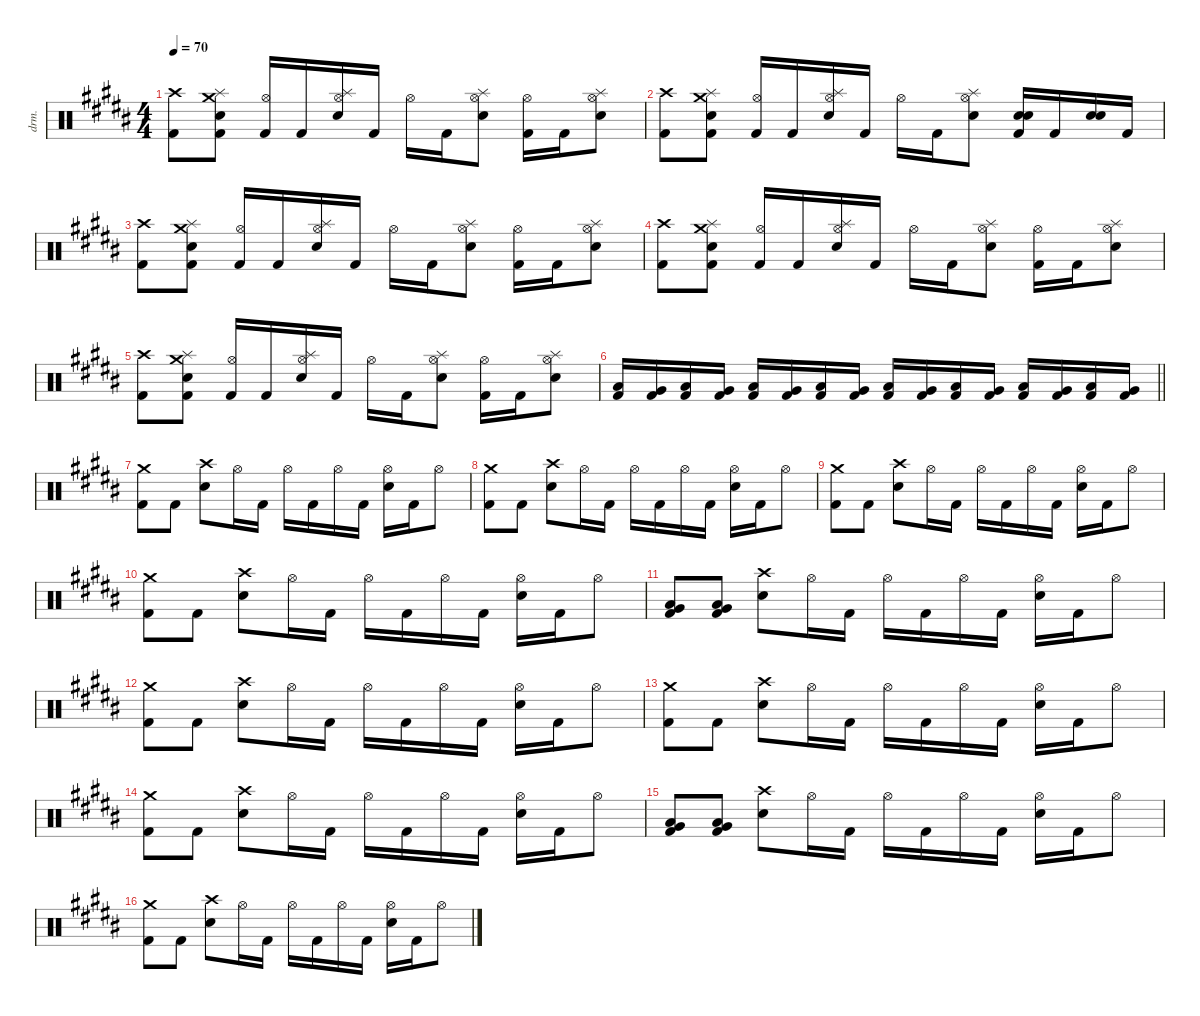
\defaultSystemsLayout 4
\hideDynamics
\bracketExtendMode nobrackets
\otherSystemsTrackNameOrientation horizontal
\track ("Drums" "drm.") {defaultSystemsLayout 4 instrument percussion}
\staff {score}
\articulation defaults
\ts (4 4)
\tempo 70
\clef neutral
\ks b
("Crash high (hit)"{acc forcenatural} "Kick (hit) 2"{acc forcenatural}).8{dy f beam Down} ("Crash medium (hit)"{acc forcenatural} "Splash (hit)"{acc forcenatural} "Snare (hit) 2"{acc forcenatural} "Kick (hit) 2"{acc forcenatural}).8{beam Down} ("Hi-Hat (open)"{acc forcenatural} "Kick (hit) 2"{acc forcenatural}).16{beam Up} "Kick (hit) 2"{acc forcenatural}.16{beam Up} ("Hi-Hat (open)"{acc forcenatural} "Splash (hit)"{acc forcenatural} "Snare (hit) 2"{acc forcenatural}).16{beam Up} "Kick (hit) 2"{acc forcenatural}.16{beam Up} "Hi-Hat (open)"{acc forcenatural}.16{beam Down} "Kick (hit) 2"{acc forcenatural}.16{beam Down} ("Hi-Hat (open)"{acc forcenatural} "Splash (hit)"{acc forcenatural} "Snare (hit) 2"{acc forcenatural}).8{beam Down} ("Hi-Hat (open)"{acc forcenatural} "Kick (hit) 2"{acc forcenatural}).16{beam Down} "Kick (hit) 2"{acc forcenatural}.16{beam Down} ("Hi-Hat (open)"{acc forcenatural} "Splash (hit)"{acc forcenatural} "Snare (hit) 2"{acc forcenatural}).8{beam Down} |
("Crash high (hit)"{acc forcenatural} "Kick (hit) 2"{acc forcenatural}).8{beam Down} ("Crash medium (hit)"{acc forcenatural} "Splash (hit)"{acc forcenatural} "Snare (hit) 2"{acc forcenatural} "Kick (hit) 2"{acc forcenatural}).8{beam Down} ("Hi-Hat (open)"{acc forcenatural} "Kick (hit) 2"{acc forcenatural}).16{beam Up} "Kick (hit) 2"{acc forcenatural}.16{beam Up} ("Hi-Hat (open)"{acc forcenatural} "Splash (hit)"{acc forcenatural} "Snare (hit) 2"{acc forcenatural}).16{beam Up} "Kick (hit) 2"{acc forcenatural}.16{beam Up} "Hi-Hat (open)"{acc forcenatural}.16{beam Down} "Kick (hit) 2"{acc forcenatural}.16{beam Down} ("Hi-Hat (open)"{acc forcenatural} "Splash (hit)"{acc forcenatural} "Snare (hit) 2"{acc forcenatural}).8{beam Down} ("Snare (hit) 2"{acc forcenatural} "Snare (hit) 2"{acc forcenatural} "Kick (hit) 2"{acc forcenatural}).16{beam Up} "Kick (hit) 2"{acc forcenatural}.16{beam Up} ("Snare (hit) 2"{acc forcenatural} "Snare (hit) 2"{acc forcenatural}).16{beam Up} "Kick (hit) 2"{acc forcenatural}.16{beam Up} |
("Crash high (hit)"{acc forcenatural} "Kick (hit) 2"{acc forcenatural}).8{beam Down} ("Crash medium (hit)"{acc forcenatural} "Splash (hit)"{acc forcenatural} "Snare (hit) 2"{acc forcenatural} "Kick (hit) 2"{acc forcenatural}).8{beam Down} ("Hi-Hat (open)"{acc forcenatural} "Kick (hit) 2"{acc forcenatural}).16{beam Up} "Kick (hit) 2"{acc forcenatural}.16{beam Up} ("Hi-Hat (open)"{acc forcenatural} "Splash (hit)"{acc forcenatural} "Snare (hit) 2"{acc forcenatural}).16{beam Up} "Kick (hit) 2"{acc forcenatural}.16{beam Up} "Hi-Hat (open)"{acc forcenatural}.16{beam Down} "Kick (hit) 2"{acc forcenatural}.16{beam Down} ("Hi-Hat (open)"{acc forcenatural} "Splash (hit)"{acc forcenatural} "Snare (hit) 2"{acc forcenatural}).8{beam Down} ("Hi-Hat (open)"{acc forcenatural} "Kick (hit) 2"{acc forcenatural}).16{beam Down} "Kick (hit) 2"{acc forcenatural}.16{beam Down} ("Hi-Hat (open)"{acc forcenatural} "Splash (hit)"{acc forcenatural} "Snare (hit) 2"{acc forcenatural}).8{beam Down} |
("Crash high (hit)"{acc forcenatural} "Kick (hit) 2"{acc forcenatural}).8{beam Down} ("Crash medium (hit)"{acc forcenatural} "Splash (hit)"{acc forcenatural} "Snare (hit) 2"{acc forcenatural} "Kick (hit) 2"{acc forcenatural}).8{beam Down} ("Hi-Hat (open)"{acc forcenatural} "Kick (hit) 2"{acc forcenatural}).16{beam Up} "Kick (hit) 2"{acc forcenatural}.16{beam Up} ("Hi-Hat (open)"{acc forcenatural} "Splash (hit)"{acc forcenatural} "Snare (hit) 2"{acc forcenatural}).16{beam Up} "Kick (hit) 2"{acc forcenatural}.16{beam Up} "Hi-Hat (open)"{acc forcenatural}.16{beam Down} "Kick (hit) 2"{acc forcenatural}.16{beam Down} ("Hi-Hat (open)"{acc forcenatural} "Splash (hit)"{acc forcenatural} "Snare (hit) 2"{acc forcenatural}).8{beam Down} ("Hi-Hat (open)"{acc forcenatural} "Kick (hit) 2"{acc forcenatural}).16{beam Down} "Kick (hit) 2"{acc forcenatural}.16{beam Down} ("Hi-Hat (open)"{acc forcenatural} "Splash (hit)"{acc forcenatural} "Snare (hit) 2"{acc forcenatural}).8{beam Down} |
("Crash high (hit)"{acc forcenatural} "Kick (hit) 2"{acc forcenatural}).8{beam Down} ("Crash medium (hit)"{acc forcenatural} "Splash (hit)"{acc forcenatural} "Snare (hit) 2"{acc forcenatural} "Kick (hit) 2"{acc forcenatural}).8{beam Down} ("Hi-Hat (open)"{acc forcenatural} "Kick (hit) 2"{acc forcenatural}).16{beam Up} "Kick (hit) 2"{acc forcenatural}.16{beam Up} ("Hi-Hat (open)"{acc forcenatural} "Splash (hit)"{acc forcenatural} "Snare (hit) 2"{acc forcenatural}).16{beam Up} "Kick (hit) 2"{acc forcenatural}.16{beam Up} "Hi-Hat (open)"{acc forcenatural}.16{beam Down} "Kick (hit) 2"{acc forcenatural}.16{beam Down} ("Hi-Hat (open)"{acc forcenatural} "Splash (hit)"{acc forcenatural} "Snare (hit) 2"{acc forcenatural}).8{beam Down} ("Hi-Hat (open)"{acc forcenatural} "Kick (hit) 2"{acc forcenatural}).16{beam Down} "Kick (hit) 2"{acc forcenatural}.16{beam Down} ("Hi-Hat (open)"{acc forcenatural} "Splash (hit)"{acc forcenatural} "Snare (hit) 2"{acc forcenatural}).8{beam Down} |
\tempo (71 1 hide)
\barLineRight lightlight
("Low Tom (hit)"{acc forcenatural} "Kick (hit) 2"{acc forcenatural}).16{beam Up} ("Very Low Tom (hit)"{acc forcenatural} "Kick (hit) 2"{acc forcenatural}).16{beam Up} ("Low Tom (hit)"{acc forcenatural} "Kick (hit) 2"{acc forcenatural}).16{beam Up} ("Very Low Tom (hit)"{acc forcenatural} "Kick (hit) 2"{acc forcenatural}).16{beam Up} ("Low Tom (hit)"{acc forcenatural} "Kick (hit) 2"{acc forcenatural}).16{beam Up} ("Very Low Tom (hit)"{acc forcenatural} "Kick (hit) 2"{acc forcenatural}).16{beam Up} ("Low Tom (hit)"{acc forcenatural} "Kick (hit) 2"{acc forcenatural}).16{beam Up} ("Very Low Tom (hit)"{acc forcenatural} "Kick (hit) 2"{acc forcenatural}).16{beam Up} ("Low Tom (hit)"{acc forcenatural} "Kick (hit) 2"{acc forcenatural}).16{beam Up} ("Very Low Tom (hit)"{acc forcenatural} "Kick (hit) 2"{acc forcenatural}).16{beam Up} ("Low Tom (hit)"{acc forcenatural} "Kick (hit) 2"{acc forcenatural}).16{beam Up} ("Very Low Tom (hit)"{acc forcenatural} "Kick (hit) 2"{acc forcenatural}).16{beam Up} ("Low Tom (hit)"{acc forcenatural} "Kick (hit) 2"{acc forcenatural}).16{beam Up} ("Very Low Tom (hit)"{acc forcenatural} "Kick (hit) 2"{acc forcenatural}).16{beam Up} ("Low Tom (hit)"{acc forcenatural} "Kick (hit) 2"{acc forcenatural}).16{beam Up} ("Very Low Tom (hit)"{acc forcenatural} "Kick (hit) 2"{acc forcenatural}).16{beam Up} |
("Crash medium (hit)"{acc forcenatural} "Kick (hit) 2"{acc forcenatural}).8{beam Down} "Kick (hit) 2"{acc forcenatural}.8{beam Down} ("Crash high (hit)"{acc forcenatural} "Snare (hit) 2"{acc forcenatural}).8{beam Down} "Hi-Hat (open)"{acc forcenatural}.16{beam Down} "Kick (hit) 2"{acc forcenatural}.16{beam Down} "Hi-Hat (open)"{acc forcenatural}.16{beam Down} "Kick (hit) 2"{acc forcenatural}.16{beam Down} "Hi-Hat (open)"{acc forcenatural}.16{beam Down} "Kick (hit) 2"{acc forcenatural}.16{beam Down} ("Hi-Hat (open)"{acc forcenatural} "Snare (hit) 2"{acc forcenatural}).16{beam Down} "Kick (hit) 2"{acc forcenatural}.16{beam Down} "Hi-Hat (open)"{acc forcenatural}.8{beam Down} |
("Crash medium (hit)"{acc forcenatural} "Kick (hit) 2"{acc forcenatural}).8{beam Down} "Kick (hit) 2"{acc forcenatural}.8{beam Down} ("Crash high (hit)"{acc forcenatural} "Snare (hit) 2"{acc forcenatural}).8{beam Down} "Hi-Hat (open)"{acc forcenatural}.16{beam Down} "Kick (hit) 2"{acc forcenatural}.16{beam Down} "Hi-Hat (open)"{acc forcenatural}.16{beam Down} "Kick (hit) 2"{acc forcenatural}.16{beam Down} "Hi-Hat (open)"{acc forcenatural}.16{beam Down} "Kick (hit) 2"{acc forcenatural}.16{beam Down} ("Hi-Hat (open)"{acc forcenatural} "Snare (hit) 2"{acc forcenatural}).16{beam Down} "Kick (hit) 2"{acc forcenatural}.16{beam Down} "Hi-Hat (open)"{acc forcenatural}.8{beam Down} |
("Crash medium (hit)"{acc forcenatural} "Kick (hit) 2"{acc forcenatural}).8{beam Down} "Kick (hit) 2"{acc forcenatural}.8{beam Down} ("Crash high (hit)"{acc forcenatural} "Snare (hit) 2"{acc forcenatural}).8{beam Down} "Hi-Hat (open)"{acc forcenatural}.16{beam Down} "Kick (hit) 2"{acc forcenatural}.16{beam Down} "Hi-Hat (open)"{acc forcenatural}.16{beam Down} "Kick (hit) 2"{acc forcenatural}.16{beam Down} "Hi-Hat (open)"{acc forcenatural}.16{beam Down} "Kick (hit) 2"{acc forcenatural}.16{beam Down} ("Hi-Hat (open)"{acc forcenatural} "Snare (hit) 2"{acc forcenatural}).16{beam Down} "Kick (hit) 2"{acc forcenatural}.16{beam Down} "Hi-Hat (open)"{acc forcenatural}.8{beam Down} |
("Crash medium (hit)"{acc forcenatural} "Kick (hit) 2"{acc forcenatural}).8{beam Down} "Kick (hit) 2"{acc forcenatural}.8{beam Down} ("Crash high (hit)"{acc forcenatural} "Snare (hit) 2"{acc forcenatural}).8{beam Down} "Hi-Hat (open)"{acc forcenatural}.16{beam Down} "Kick (hit) 2"{acc forcenatural}.16{beam Down} "Hi-Hat (open)"{acc forcenatural}.16{beam Down} "Kick (hit) 2"{acc forcenatural}.16{beam Down} "Hi-Hat (open)"{acc forcenatural}.16{beam Down} "Kick (hit) 2"{acc forcenatural}.16{beam Down} ("Hi-Hat (open)"{acc forcenatural} "Snare (hit) 2"{acc forcenatural}).16{beam Down} "Kick (hit) 2"{acc forcenatural}.16{beam Down} "Hi-Hat (open)"{acc forcenatural}.8{beam Down} |
("Low Tom (hit)"{acc forcenatural} "Very Low Tom (hit)"{acc forcenatural} "Kick (hit) 2"{acc forcenatural}).8{beam Up} ("Very Low Tom (hit)"{acc forcenatural} "Low Floor Tom (hit)"{acc forcenatural} "Kick (hit) 2"{acc forcenatural}).8{beam Up} ("Crash high (hit)"{acc forcenatural} "Snare (hit) 2"{acc forcenatural}).8{beam Down} "Hi-Hat (open)"{acc forcenatural}.16{beam Down} "Kick (hit) 2"{acc forcenatural}.16{beam Down} "Hi-Hat (open)"{acc forcenatural}.16{beam Down} "Kick (hit) 2"{acc forcenatural}.16{beam Down} "Hi-Hat (open)"{acc forcenatural}.16{beam Down} "Kick (hit) 2"{acc forcenatural}.16{beam Down} ("Hi-Hat (open)"{acc forcenatural} "Snare (hit) 2"{acc forcenatural}).16{beam Down} "Kick (hit) 2"{acc forcenatural}.16{beam Down} "Hi-Hat (open)"{acc forcenatural}.8{beam Down} |
("Crash medium (hit)"{acc forcenatural} "Kick (hit) 2"{acc forcenatural}).8{beam Down} "Kick (hit) 2"{acc forcenatural}.8{beam Down} ("Crash high (hit)"{acc forcenatural} "Snare (hit) 2"{acc forcenatural}).8{beam Down} "Hi-Hat (open)"{acc forcenatural}.16{beam Down} "Kick (hit) 2"{acc forcenatural}.16{beam Down} "Hi-Hat (open)"{acc forcenatural}.16{beam Down} "Kick (hit) 2"{acc forcenatural}.16{beam Down} "Hi-Hat (open)"{acc forcenatural}.16{beam Down} "Kick (hit) 2"{acc forcenatural}.16{beam Down} ("Hi-Hat (open)"{acc forcenatural} "Snare (hit) 2"{acc forcenatural}).16{beam Down} "Kick (hit) 2"{acc forcenatural}.16{beam Down} "Hi-Hat (open)"{acc forcenatural}.8{beam Down} |
("Crash medium (hit)"{acc forcenatural} "Kick (hit) 2"{acc forcenatural}).8{beam Down} "Kick (hit) 2"{acc forcenatural}.8{beam Down} ("Crash high (hit)"{acc forcenatural} "Snare (hit) 2"{acc forcenatural}).8{beam Down} "Hi-Hat (open)"{acc forcenatural}.16{beam Down} "Kick (hit) 2"{acc forcenatural}.16{beam Down} "Hi-Hat (open)"{acc forcenatural}.16{beam Down} "Kick (hit) 2"{acc forcenatural}.16{beam Down} "Hi-Hat (open)"{acc forcenatural}.16{beam Down} "Kick (hit) 2"{acc forcenatural}.16{beam Down} ("Hi-Hat (open)"{acc forcenatural} "Snare (hit) 2"{acc forcenatural}).16{beam Down} "Kick (hit) 2"{acc forcenatural}.16{beam Down} "Hi-Hat (open)"{acc forcenatural}.8{beam Down} |
("Crash medium (hit)"{acc forcenatural} "Kick (hit) 2"{acc forcenatural}).8{beam Down} "Kick (hit) 2"{acc forcenatural}.8{beam Down} ("Crash high (hit)"{acc forcenatural} "Snare (hit) 2"{acc forcenatural}).8{beam Down} "Hi-Hat (open)"{acc forcenatural}.16{beam Down} "Kick (hit) 2"{acc forcenatural}.16{beam Down} "Hi-Hat (open)"{acc forcenatural}.16{beam Down} "Kick (hit) 2"{acc forcenatural}.16{beam Down} "Hi-Hat (open)"{acc forcenatural}.16{beam Down} "Kick (hit) 2"{acc forcenatural}.16{beam Down} ("Hi-Hat (open)"{acc forcenatural} "Snare (hit) 2"{acc forcenatural}).16{beam Down} "Kick (hit) 2"{acc forcenatural}.16{beam Down} "Hi-Hat (open)"{acc forcenatural}.8{beam Down} |
("Low Tom (hit)"{acc forcenatural} "Very Low Tom (hit)"{acc forcenatural} "Kick (hit) 2"{acc forcenatural}).8{beam Up} ("Very Low Tom (hit)"{acc forcenatural} "Low Floor Tom (hit)"{acc forcenatural} "Kick (hit) 2"{acc forcenatural}).8{beam Up} ("Crash high (hit)"{acc forcenatural} "Snare (hit) 2"{acc forcenatural}).8{beam Down} "Hi-Hat (open)"{acc forcenatural}.16{beam Down} "Kick (hit) 2"{acc forcenatural}.16{beam Down} "Hi-Hat (open)"{acc forcenatural}.16{beam Down} "Kick (hit) 2"{acc forcenatural}.16{beam Down} "Hi-Hat (open)"{acc forcenatural}.16{beam Down} "Kick (hit) 2"{acc forcenatural}.16{beam Down} ("Hi-Hat (open)"{acc forcenatural} "Snare (hit) 2"{acc forcenatural}).16{beam Down} "Kick (hit) 2"{acc forcenatural}.16{beam Down} "Hi-Hat (open)"{acc forcenatural}.8{beam Down} |
("Crash medium (hit)"{acc forcenatural} "Kick (hit) 2"{acc forcenatural}).8{beam Down} "Kick (hit) 2"{acc forcenatural}.8{beam Down} ("Crash high (hit)"{acc forcenatural} "Snare (hit) 2"{acc forcenatural}).8{beam Down} "Hi-Hat (open)"{acc forcenatural}.16{beam Down} "Kick (hit) 2"{acc forcenatural}.16{beam Down} "Hi-Hat (open)"{acc forcenatural}.16{beam Down} "Kick (hit) 2"{acc forcenatural}.16{beam Down} "Hi-Hat (open)"{acc forcenatural}.16{beam Down} "Kick (hit) 2"{acc forcenatural}.16{beam Down} ("Hi-Hat (open)"{acc forcenatural} "Snare (hit) 2"{acc forcenatural}).16{beam Down} "Kick (hit) 2"{acc forcenatural}.16{beam Down} "Hi-Hat (open)"{acc forcenatural}.8{beam Down}
